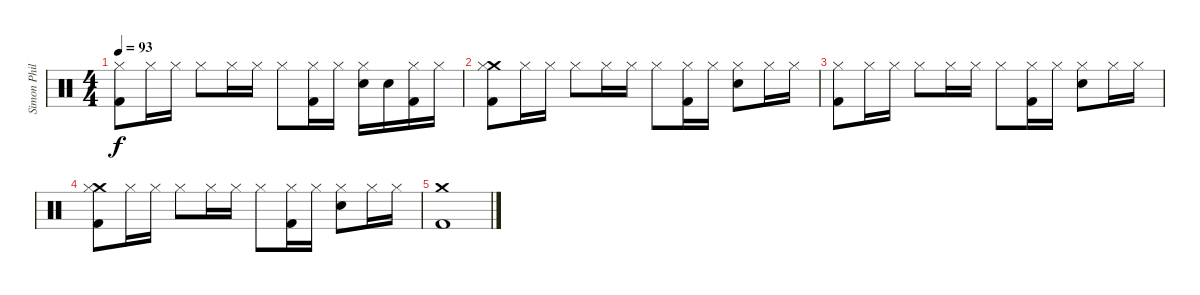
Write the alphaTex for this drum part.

\track ("Simon Phillips" "Simon Phil") {instrument percussion}
\staff {score}
\articulation defaults
\ts (4 4)
\tempo 93
\clef neutral
\ks c
("Hi-Hat (closed)" "Kick (hit) 2").8{dy f} "Hi-Hat (closed)".16 "Hi-Hat (closed)".16 "Hi-Hat (closed)".8 "Hi-Hat (closed)".16 "Hi-Hat (closed)".16 "Hi-Hat (closed)".8 ("Hi-Hat (closed)" "Kick (hit) 2").16 "Hi-Hat (closed)".16 ("Electric Snare (hit)" "Hi-Hat (closed)").16 "Electric Snare (hit)".16 ("Hi-Hat (closed)" "Kick (hit) 2").16 "Hi-Hat (closed)".16 |
("Crash medium (hit)" "Hi-Hat (closed)" "Kick (hit) 2").8 "Hi-Hat (closed)".16 "Hi-Hat (closed)".16 "Hi-Hat (closed)".8 "Hi-Hat (closed)".16 "Hi-Hat (closed)".16 "Hi-Hat (closed)".8 ("Hi-Hat (closed)" "Kick (hit) 2").16 "Hi-Hat (closed)".16 ("Electric Snare (hit)" "Hi-Hat (closed)").8 "Hi-Hat (closed)".16 "Hi-Hat (closed)".16 |
("Hi-Hat (closed)" "Kick (hit) 2").8 "Hi-Hat (closed)".16 "Hi-Hat (closed)".16 "Hi-Hat (closed)".8 "Hi-Hat (closed)".16 "Hi-Hat (closed)".16 "Hi-Hat (closed)".8 ("Hi-Hat (closed)" "Kick (hit) 2").16 "Hi-Hat (closed)".16 ("Electric Snare (hit)" "Hi-Hat (closed)").8 "Hi-Hat (closed)".16 "Hi-Hat (closed)".16 |
("Crash medium (hit)" "Hi-Hat (closed)" "Kick (hit) 2").8 "Hi-Hat (closed)".16 "Hi-Hat (closed)".16 "Hi-Hat (closed)".8 "Hi-Hat (closed)".16 "Hi-Hat (closed)".16 "Hi-Hat (closed)".8 ("Hi-Hat (closed)" "Kick (hit) 2").16 "Hi-Hat (closed)".16 ("Electric Snare (hit)" "Hi-Hat (closed)").8 "Hi-Hat (closed)".16 "Hi-Hat (closed)".16 |
("Crash medium (hit)" "Kick (hit) 2").1
